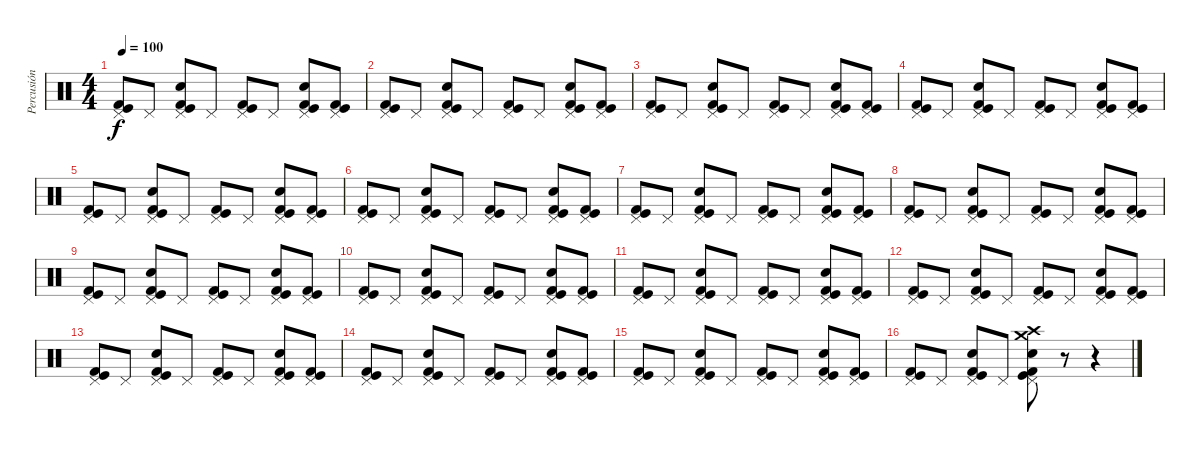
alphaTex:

\track ("Percusión" "Percusión") {instrument percussion}
\staff {score}
\articulation defaults
\ts (4 4)
\tempo 100
\clef neutral
\ks c
("Pedal Hi-Hat (hit)" "Kick (hit)" "Kick (hit) 2").8{dy f} "Pedal Hi-Hat (hit)".8 ("Pedal Hi-Hat (hit)" "Kick (hit)" "Kick (hit) 2" "Snare (hit) 2").8 "Pedal Hi-Hat (hit)".8 ("Pedal Hi-Hat (hit)" "Kick (hit)" "Kick (hit) 2").8 "Pedal Hi-Hat (hit)".8 ("Pedal Hi-Hat (hit)" "Kick (hit)" "Kick (hit) 2" "Snare (hit) 2").8 ("Pedal Hi-Hat (hit)" "Kick (hit)" "Kick (hit) 2").8 |
("Pedal Hi-Hat (hit)" "Kick (hit)" "Kick (hit) 2").8 "Pedal Hi-Hat (hit)".8 ("Pedal Hi-Hat (hit)" "Kick (hit)" "Kick (hit) 2" "Snare (hit) 2").8 "Pedal Hi-Hat (hit)".8 ("Pedal Hi-Hat (hit)" "Kick (hit)" "Kick (hit) 2").8 "Pedal Hi-Hat (hit)".8 ("Pedal Hi-Hat (hit)" "Kick (hit)" "Kick (hit) 2" "Snare (hit) 2").8 ("Pedal Hi-Hat (hit)" "Kick (hit)" "Kick (hit) 2").8 |
("Pedal Hi-Hat (hit)" "Kick (hit)" "Kick (hit) 2").8 "Pedal Hi-Hat (hit)".8 ("Pedal Hi-Hat (hit)" "Kick (hit)" "Kick (hit) 2" "Snare (hit) 2").8 "Pedal Hi-Hat (hit)".8 ("Pedal Hi-Hat (hit)" "Kick (hit)" "Kick (hit) 2").8 "Pedal Hi-Hat (hit)".8 ("Pedal Hi-Hat (hit)" "Kick (hit)" "Kick (hit) 2" "Snare (hit) 2").8 ("Pedal Hi-Hat (hit)" "Kick (hit)" "Kick (hit) 2").8 |
("Pedal Hi-Hat (hit)" "Kick (hit)" "Kick (hit) 2").8 "Pedal Hi-Hat (hit)".8 ("Pedal Hi-Hat (hit)" "Kick (hit)" "Kick (hit) 2" "Snare (hit) 2").8 "Pedal Hi-Hat (hit)".8 ("Pedal Hi-Hat (hit)" "Kick (hit)" "Kick (hit) 2").8 "Pedal Hi-Hat (hit)".8 ("Pedal Hi-Hat (hit)" "Kick (hit)" "Kick (hit) 2" "Snare (hit) 2").8 ("Pedal Hi-Hat (hit)" "Kick (hit)" "Kick (hit) 2").8 |
("Pedal Hi-Hat (hit)" "Kick (hit)" "Kick (hit) 2").8 "Pedal Hi-Hat (hit)".8 ("Pedal Hi-Hat (hit)" "Kick (hit)" "Kick (hit) 2" "Snare (hit) 2").8 "Pedal Hi-Hat (hit)".8 ("Pedal Hi-Hat (hit)" "Kick (hit)" "Kick (hit) 2").8 "Pedal Hi-Hat (hit)".8 ("Pedal Hi-Hat (hit)" "Kick (hit)" "Kick (hit) 2" "Snare (hit) 2").8 ("Pedal Hi-Hat (hit)" "Kick (hit)" "Kick (hit) 2").8 |
("Pedal Hi-Hat (hit)" "Kick (hit)" "Kick (hit) 2").8 "Pedal Hi-Hat (hit)".8 ("Pedal Hi-Hat (hit)" "Kick (hit)" "Kick (hit) 2" "Snare (hit) 2").8 "Pedal Hi-Hat (hit)".8 ("Pedal Hi-Hat (hit)" "Kick (hit)" "Kick (hit) 2").8 "Pedal Hi-Hat (hit)".8 ("Pedal Hi-Hat (hit)" "Kick (hit)" "Kick (hit) 2" "Snare (hit) 2").8 ("Pedal Hi-Hat (hit)" "Kick (hit)" "Kick (hit) 2").8 |
("Pedal Hi-Hat (hit)" "Kick (hit)" "Kick (hit) 2").8 "Pedal Hi-Hat (hit)".8 ("Pedal Hi-Hat (hit)" "Kick (hit)" "Kick (hit) 2" "Snare (hit) 2").8 "Pedal Hi-Hat (hit)".8 ("Pedal Hi-Hat (hit)" "Kick (hit)" "Kick (hit) 2").8 "Pedal Hi-Hat (hit)".8 ("Pedal Hi-Hat (hit)" "Kick (hit)" "Kick (hit) 2" "Snare (hit) 2").8 ("Pedal Hi-Hat (hit)" "Kick (hit)" "Kick (hit) 2").8 |
("Pedal Hi-Hat (hit)" "Kick (hit)" "Kick (hit) 2").8 "Pedal Hi-Hat (hit)".8 ("Pedal Hi-Hat (hit)" "Kick (hit)" "Kick (hit) 2" "Snare (hit) 2").8 "Pedal Hi-Hat (hit)".8 ("Pedal Hi-Hat (hit)" "Kick (hit)" "Kick (hit) 2").8 "Pedal Hi-Hat (hit)".8 ("Pedal Hi-Hat (hit)" "Kick (hit)" "Kick (hit) 2" "Snare (hit) 2").8 ("Pedal Hi-Hat (hit)" "Kick (hit)" "Kick (hit) 2").8 |
("Pedal Hi-Hat (hit)" "Kick (hit)" "Kick (hit) 2").8 "Pedal Hi-Hat (hit)".8 ("Pedal Hi-Hat (hit)" "Kick (hit)" "Kick (hit) 2" "Snare (hit) 2").8 "Pedal Hi-Hat (hit)".8 ("Pedal Hi-Hat (hit)" "Kick (hit)" "Kick (hit) 2").8 "Pedal Hi-Hat (hit)".8 ("Pedal Hi-Hat (hit)" "Kick (hit)" "Kick (hit) 2" "Snare (hit) 2").8 ("Pedal Hi-Hat (hit)" "Kick (hit)" "Kick (hit) 2").8 |
("Pedal Hi-Hat (hit)" "Kick (hit)" "Kick (hit) 2").8 "Pedal Hi-Hat (hit)".8 ("Pedal Hi-Hat (hit)" "Kick (hit)" "Kick (hit) 2" "Snare (hit) 2").8 "Pedal Hi-Hat (hit)".8 ("Pedal Hi-Hat (hit)" "Kick (hit)" "Kick (hit) 2").8 "Pedal Hi-Hat (hit)".8 ("Pedal Hi-Hat (hit)" "Kick (hit)" "Kick (hit) 2" "Snare (hit) 2").8 ("Pedal Hi-Hat (hit)" "Kick (hit)" "Kick (hit) 2").8 |
("Pedal Hi-Hat (hit)" "Kick (hit)" "Kick (hit) 2").8 "Pedal Hi-Hat (hit)".8 ("Pedal Hi-Hat (hit)" "Kick (hit)" "Kick (hit) 2" "Snare (hit) 2").8 "Pedal Hi-Hat (hit)".8 ("Pedal Hi-Hat (hit)" "Kick (hit)" "Kick (hit) 2").8 "Pedal Hi-Hat (hit)".8 ("Pedal Hi-Hat (hit)" "Kick (hit)" "Kick (hit) 2" "Snare (hit) 2").8 ("Pedal Hi-Hat (hit)" "Kick (hit)" "Kick (hit) 2").8 |
("Pedal Hi-Hat (hit)" "Kick (hit)" "Kick (hit) 2").8 "Pedal Hi-Hat (hit)".8 ("Pedal Hi-Hat (hit)" "Kick (hit)" "Kick (hit) 2" "Snare (hit) 2").8 "Pedal Hi-Hat (hit)".8 ("Pedal Hi-Hat (hit)" "Kick (hit)" "Kick (hit) 2").8 "Pedal Hi-Hat (hit)".8 ("Pedal Hi-Hat (hit)" "Kick (hit)" "Kick (hit) 2" "Snare (hit) 2").8 ("Pedal Hi-Hat (hit)" "Kick (hit)" "Kick (hit) 2").8 |
("Pedal Hi-Hat (hit)" "Kick (hit)" "Kick (hit) 2").8 "Pedal Hi-Hat (hit)".8 ("Pedal Hi-Hat (hit)" "Kick (hit)" "Kick (hit) 2" "Snare (hit) 2").8 "Pedal Hi-Hat (hit)".8 ("Pedal Hi-Hat (hit)" "Kick (hit)" "Kick (hit) 2").8 "Pedal Hi-Hat (hit)".8 ("Pedal Hi-Hat (hit)" "Kick (hit)" "Kick (hit) 2" "Snare (hit) 2").8 ("Pedal Hi-Hat (hit)" "Kick (hit)" "Kick (hit) 2").8 |
("Pedal Hi-Hat (hit)" "Kick (hit)" "Kick (hit) 2").8 "Pedal Hi-Hat (hit)".8 ("Pedal Hi-Hat (hit)" "Kick (hit)" "Kick (hit) 2" "Snare (hit) 2").8 "Pedal Hi-Hat (hit)".8 ("Pedal Hi-Hat (hit)" "Kick (hit)" "Kick (hit) 2").8 "Pedal Hi-Hat (hit)".8 ("Pedal Hi-Hat (hit)" "Kick (hit)" "Kick (hit) 2" "Snare (hit) 2").8 ("Pedal Hi-Hat (hit)" "Kick (hit)" "Kick (hit) 2").8 |
("Pedal Hi-Hat (hit)" "Kick (hit)" "Kick (hit) 2").8 "Pedal Hi-Hat (hit)".8 ("Pedal Hi-Hat (hit)" "Kick (hit)" "Kick (hit) 2" "Snare (hit) 2").8 "Pedal Hi-Hat (hit)".8 ("Pedal Hi-Hat (hit)" "Kick (hit)" "Kick (hit) 2").8 "Pedal Hi-Hat (hit)".8 ("Pedal Hi-Hat (hit)" "Kick (hit)" "Kick (hit) 2" "Snare (hit) 2").8 ("Pedal Hi-Hat (hit)" "Kick (hit)" "Kick (hit) 2").8 |
("Pedal Hi-Hat (hit)" "Kick (hit)" "Kick (hit) 2").8 "Pedal Hi-Hat (hit)".8 ("Pedal Hi-Hat (hit)" "Kick (hit)" "Kick (hit) 2" "Snare (hit) 2").8 "Pedal Hi-Hat (hit)".8 ("Pedal Hi-Hat (hit)" "Crash high (hit)" "Crash medium (hit)" "Kick (hit)" "Kick (hit) 2" "Snare (hit) 2").8 r.8 r.4
